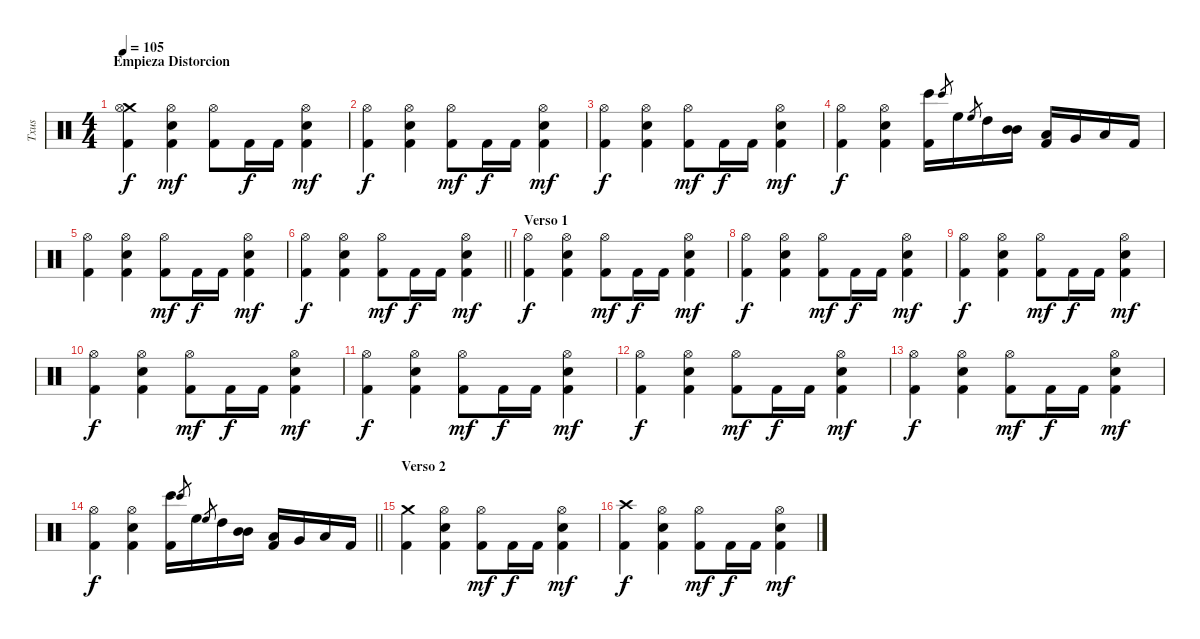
\track ("Txus" "Txus") {instrument percussion}
\staff {score}
\articulation defaults
\ts (4 4)
\section ("" "Empieza Distorcion")
\tempo 105
\clef neutral
\ks c
("Crash medium (hit)" "Hi-Hat (open)" "Kick (hit) 2").4{dy f} ("Hi-Hat (open)" "Electric Snare (hit)" "Kick (hit) 2").4{dy mf} ("Hi-Hat (open)" "Kick (hit) 2").8 "Kick (hit) 2".16{dy f} "Kick (hit) 2".16 ("Hi-Hat (open)" "Electric Snare (hit)" "Kick (hit) 2").4{dy mf} |
("Hi-Hat (open)" "Kick (hit) 2").4{dy f} ("Hi-Hat (open)" "Electric Snare (hit)" "Kick (hit) 2").4 ("Hi-Hat (open)" "Kick (hit) 2").8{dy mf} "Kick (hit) 2".16{dy f} "Kick (hit) 2".16 ("Hi-Hat (open)" "Electric Snare (hit)" "Kick (hit) 2").4{dy mf} |
("Hi-Hat (open)" "Kick (hit) 2").4{dy f} ("Hi-Hat (open)" "Electric Snare (hit)" "Kick (hit) 2").4 ("Hi-Hat (open)" "Kick (hit) 2").8{dy mf} "Kick (hit) 2".16{dy f} "Kick (hit) 2".16 ("Hi-Hat (open)" "Electric Snare (hit)" "Kick (hit) 2").4{dy mf} |
("Hi-Hat (open)" "Kick (hit) 2").4{dy f} ("Hi-Hat (open)" "Electric Snare (hit)" "Kick (hit) 2").4 ("Bongo High (hit)" "Kick (hit) 2").16 "Bongo High (hit)".8{gr} "High Floor Tom (hit)".16 "High Floor Tom (hit)".8{gr} "High Tom (hit)".16 ("Mid Tom (hit)" "Mid Tom (hit)").16 ("Low Tom (hit)" "Kick (hit) 2").16 "Very Low Tom (hit)".16 "Low Floor Tom (hit)".16 "Kick (hit) 2".16 |
("Hi-Hat (open)" "Kick (hit) 2").4 ("Hi-Hat (open)" "Electric Snare (hit)" "Kick (hit) 2").4 ("Hi-Hat (open)" "Kick (hit) 2").8{dy mf} "Kick (hit) 2".16{dy f} "Kick (hit) 2".16 ("Hi-Hat (open)" "Electric Snare (hit)" "Kick (hit) 2").4{dy mf} |
\barLineRight lightlight
("Hi-Hat (open)" "Kick (hit) 2").4{dy f} ("Hi-Hat (open)" "Electric Snare (hit)" "Kick (hit) 2").4 ("Hi-Hat (open)" "Kick (hit) 2").8{dy mf} "Kick (hit) 2".16{dy f} "Kick (hit) 2".16 ("Hi-Hat (open)" "Electric Snare (hit)" "Kick (hit) 2").4{dy mf} |
\section ("" "Verso 1")
("Hi-Hat (open)" "Kick (hit) 2").4{dy f} ("Hi-Hat (open)" "Electric Snare (hit)" "Kick (hit) 2").4 ("Hi-Hat (open)" "Kick (hit) 2").8{dy mf} "Kick (hit) 2".16{dy f} "Kick (hit) 2".16 ("Hi-Hat (open)" "Electric Snare (hit)" "Kick (hit) 2").4{dy mf} |
("Hi-Hat (open)" "Kick (hit) 2").4{dy f} ("Hi-Hat (open)" "Electric Snare (hit)" "Kick (hit) 2").4 ("Hi-Hat (open)" "Kick (hit) 2").8{dy mf} "Kick (hit) 2".16{dy f} "Kick (hit) 2".16 ("Hi-Hat (open)" "Electric Snare (hit)" "Kick (hit) 2").4{dy mf} |
("Hi-Hat (open)" "Kick (hit) 2").4{dy f} ("Hi-Hat (open)" "Electric Snare (hit)" "Kick (hit) 2").4 ("Hi-Hat (open)" "Kick (hit) 2").8{dy mf} "Kick (hit) 2".16{dy f} "Kick (hit) 2".16 ("Hi-Hat (open)" "Electric Snare (hit)" "Kick (hit) 2").4{dy mf} |
("Hi-Hat (open)" "Kick (hit) 2").4{dy f} ("Hi-Hat (open)" "Electric Snare (hit)" "Kick (hit) 2").4 ("Hi-Hat (open)" "Kick (hit) 2").8{dy mf} "Kick (hit) 2".16{dy f} "Kick (hit) 2".16 ("Hi-Hat (open)" "Electric Snare (hit)" "Kick (hit) 2").4{dy mf} |
("Hi-Hat (open)" "Kick (hit) 2").4{dy f} ("Hi-Hat (open)" "Electric Snare (hit)" "Kick (hit) 2").4 ("Hi-Hat (open)" "Kick (hit) 2").8{dy mf} "Kick (hit) 2".16{dy f} "Kick (hit) 2".16 ("Hi-Hat (open)" "Electric Snare (hit)" "Kick (hit) 2").4{dy mf} |
("Hi-Hat (open)" "Kick (hit) 2").4{dy f} ("Hi-Hat (open)" "Electric Snare (hit)" "Kick (hit) 2").4 ("Hi-Hat (open)" "Kick (hit) 2").8{dy mf} "Kick (hit) 2".16{dy f} "Kick (hit) 2".16 ("Hi-Hat (open)" "Electric Snare (hit)" "Kick (hit) 2").4{dy mf} |
("Hi-Hat (open)" "Kick (hit) 2").4{dy f} ("Hi-Hat (open)" "Electric Snare (hit)" "Kick (hit) 2").4 ("Hi-Hat (open)" "Kick (hit) 2").8{dy mf} "Kick (hit) 2".16{dy f} "Kick (hit) 2".16 ("Hi-Hat (open)" "Electric Snare (hit)" "Kick (hit) 2").4{dy mf} |
\barLineRight lightlight
("Hi-Hat (open)" "Kick (hit) 2").4{dy f} ("Hi-Hat (open)" "Electric Snare (hit)" "Kick (hit) 2").4 ("Bongo High (hit)" "Kick (hit) 2").16 "Bongo High (hit)".8{gr} "High Floor Tom (hit)".16 "High Floor Tom (hit)".8{gr} "High Tom (hit)".16 ("Mid Tom (hit)" "Mid Tom (hit)").16 ("Low Tom (hit)" "Kick (hit) 2").16 "Very Low Tom (hit)".16 "Low Floor Tom (hit)".16 "Kick (hit) 2".16 |
\section ("" "Verso 2")
("Crash medium (hit)" "Kick (hit) 2").4 ("Hi-Hat (open)" "Electric Snare (hit)" "Kick (hit) 2").4 ("Hi-Hat (open)" "Kick (hit) 2").8{dy mf} "Kick (hit) 2".16{dy f} "Kick (hit) 2".16 ("Hi-Hat (open)" "Electric Snare (hit)" "Kick (hit) 2").4{dy mf} |
("Crash high (hit)" "Kick (hit) 2").4{dy f} ("Hi-Hat (open)" "Electric Snare (hit)" "Kick (hit) 2").4 ("Hi-Hat (open)" "Kick (hit) 2").8{dy mf} "Kick (hit) 2".16{dy f} "Kick (hit) 2".16 ("Hi-Hat (open)" "Electric Snare (hit)" "Kick (hit) 2").4{dy mf}
